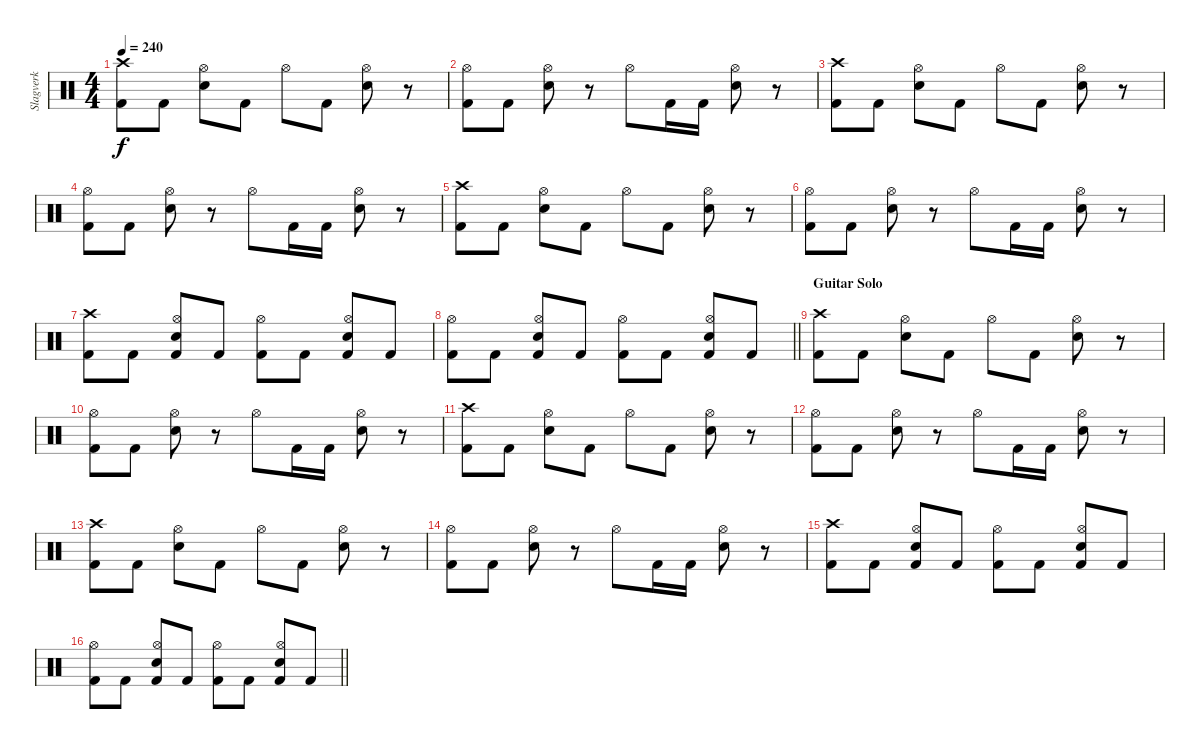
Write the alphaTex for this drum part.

\track ("Slagverk" "Slagverk") {instrument percussion}
\staff {score}
\articulation defaults
\ts (4 4)
\tempo 240
\clef neutral
\ks c
("Crash high (hit)" "Kick (hit) 2").8{dy f} "Kick (hit) 2".8 ("Hi-Hat (open)" "Electric Snare (hit)").8 "Kick (hit) 2".8 "Hi-Hat (open)".8 "Kick (hit) 2".8 ("Hi-Hat (open)" "Electric Snare (hit)").8 r.8 |
("Hi-Hat (open)" "Kick (hit) 2").8 "Kick (hit) 2".8 ("Hi-Hat (open)" "Electric Snare (hit)").8 r.8 "Hi-Hat (open)".8 "Kick (hit) 2".16 "Kick (hit) 2".16 ("Hi-Hat (open)" "Electric Snare (hit)").8 r.8 |
("Crash high (hit)" "Kick (hit) 2").8 "Kick (hit) 2".8 ("Hi-Hat (open)" "Electric Snare (hit)").8 "Kick (hit) 2".8 "Hi-Hat (open)".8 "Kick (hit) 2".8 ("Hi-Hat (open)" "Electric Snare (hit)").8 r.8 |
("Hi-Hat (open)" "Kick (hit) 2").8 "Kick (hit) 2".8 ("Hi-Hat (open)" "Electric Snare (hit)").8 r.8 "Hi-Hat (open)".8 "Kick (hit) 2".16 "Kick (hit) 2".16 ("Hi-Hat (open)" "Electric Snare (hit)").8 r.8 |
("Crash high (hit)" "Kick (hit) 2").8 "Kick (hit) 2".8 ("Hi-Hat (open)" "Electric Snare (hit)").8 "Kick (hit) 2".8 "Hi-Hat (open)".8 "Kick (hit) 2".8 ("Hi-Hat (open)" "Electric Snare (hit)").8 r.8 |
("Hi-Hat (open)" "Kick (hit) 2").8 "Kick (hit) 2".8 ("Hi-Hat (open)" "Electric Snare (hit)").8 r.8 "Hi-Hat (open)".8 "Kick (hit) 2".16 "Kick (hit) 2".16 ("Hi-Hat (open)" "Electric Snare (hit)").8 r.8 |
("Crash high (hit)" "Kick (hit) 2").8 "Kick (hit) 2".8 ("Hi-Hat (open)" "Electric Snare (hit)" "Kick (hit) 2").8 "Kick (hit) 2".8 ("Hi-Hat (open)" "Kick (hit) 2").8 "Kick (hit) 2".8 ("Hi-Hat (open)" "Electric Snare (hit)" "Kick (hit) 2").8 "Kick (hit) 2".8 |
\barLineRight lightlight
("Hi-Hat (open)" "Kick (hit) 2").8 "Kick (hit) 2".8 ("Hi-Hat (open)" "Electric Snare (hit)" "Kick (hit) 2").8 "Kick (hit) 2".8 ("Hi-Hat (open)" "Kick (hit) 2").8 "Kick (hit) 2".8 ("Hi-Hat (open)" "Electric Snare (hit)" "Kick (hit) 2").8 "Kick (hit) 2".8 |
\section ("" "Guitar Solo")
("Crash high (hit)" "Kick (hit) 2").8 "Kick (hit) 2".8 ("Hi-Hat (open)" "Electric Snare (hit)").8 "Kick (hit) 2".8 "Hi-Hat (open)".8 "Kick (hit) 2".8 ("Hi-Hat (open)" "Electric Snare (hit)").8 r.8 |
("Hi-Hat (open)" "Kick (hit) 2").8 "Kick (hit) 2".8 ("Hi-Hat (open)" "Electric Snare (hit)").8 r.8 "Hi-Hat (open)".8 "Kick (hit) 2".16 "Kick (hit) 2".16 ("Hi-Hat (open)" "Electric Snare (hit)").8 r.8 |
("Crash high (hit)" "Kick (hit) 2").8 "Kick (hit) 2".8 ("Hi-Hat (open)" "Electric Snare (hit)").8 "Kick (hit) 2".8 "Hi-Hat (open)".8 "Kick (hit) 2".8 ("Hi-Hat (open)" "Electric Snare (hit)").8 r.8 |
("Hi-Hat (open)" "Kick (hit) 2").8 "Kick (hit) 2".8 ("Hi-Hat (open)" "Electric Snare (hit)").8 r.8 "Hi-Hat (open)".8 "Kick (hit) 2".16 "Kick (hit) 2".16 ("Hi-Hat (open)" "Electric Snare (hit)").8 r.8 |
("Crash high (hit)" "Kick (hit) 2").8 "Kick (hit) 2".8 ("Hi-Hat (open)" "Electric Snare (hit)").8 "Kick (hit) 2".8 "Hi-Hat (open)".8 "Kick (hit) 2".8 ("Hi-Hat (open)" "Electric Snare (hit)").8 r.8 |
("Hi-Hat (open)" "Kick (hit) 2").8 "Kick (hit) 2".8 ("Hi-Hat (open)" "Electric Snare (hit)").8 r.8 "Hi-Hat (open)".8 "Kick (hit) 2".16 "Kick (hit) 2".16 ("Hi-Hat (open)" "Electric Snare (hit)").8 r.8 |
("Crash high (hit)" "Kick (hit) 2").8 "Kick (hit) 2".8 ("Hi-Hat (open)" "Electric Snare (hit)" "Kick (hit) 2").8 "Kick (hit) 2".8 ("Hi-Hat (open)" "Kick (hit) 2").8 "Kick (hit) 2".8 ("Hi-Hat (open)" "Electric Snare (hit)" "Kick (hit) 2").8 "Kick (hit) 2".8 |
\barLineRight lightlight
("Hi-Hat (open)" "Kick (hit) 2").8 "Kick (hit) 2".8 ("Hi-Hat (open)" "Electric Snare (hit)" "Kick (hit) 2").8 "Kick (hit) 2".8 ("Hi-Hat (open)" "Kick (hit) 2").8 "Kick (hit) 2".8 ("Hi-Hat (open)" "Electric Snare (hit)" "Kick (hit) 2").8 "Kick (hit) 2".8
